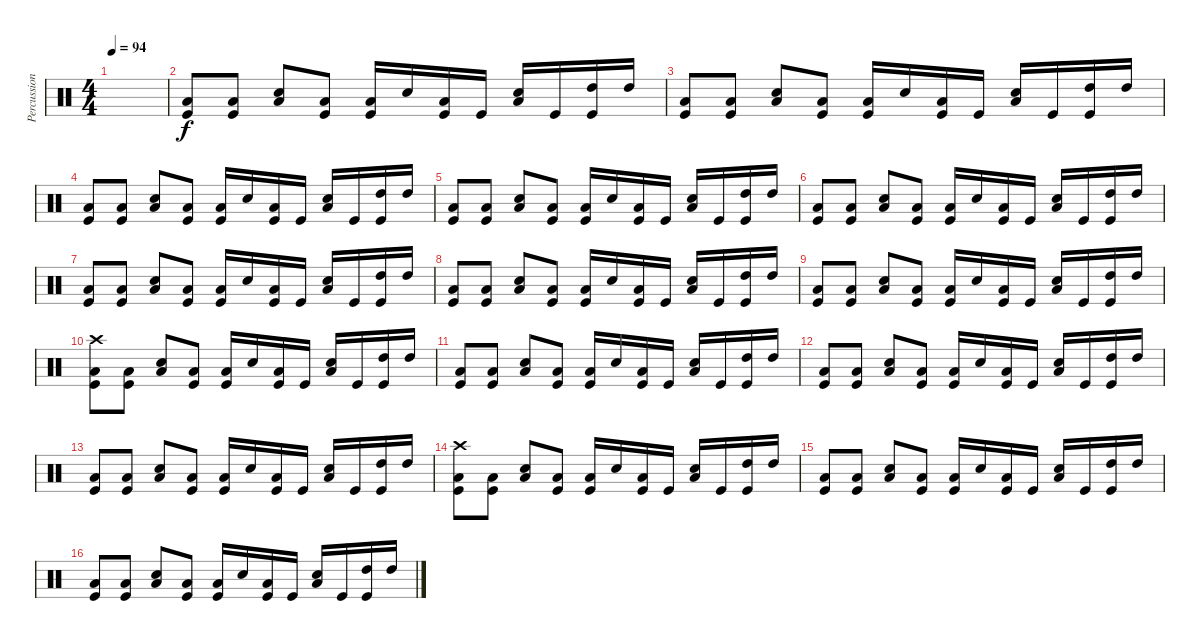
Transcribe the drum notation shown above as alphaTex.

\track ("Percussions" "Percussion") {instrument percussion}
\staff {score}
\articulation defaults
\ts (4 4)
\tempo 94
\clef neutral
\ks c
|
("Kick (hit)" "Low Floor Tom (hit)").8 ("Kick (hit)" "Low Floor Tom (hit)").8 ("Electric Snare (hit)" "Low Floor Tom (hit)").8 ("Kick (hit)" "Low Floor Tom (hit)").8 ("Kick (hit)" "Low Floor Tom (hit)").16 "Electric Snare (hit)".16 ("Kick (hit)" "Low Floor Tom (hit)").16 "Kick (hit)".16 ("Electric Snare (hit)" "Low Floor Tom (hit)").16 "Kick (hit)".16 ("High Tom (hit)" "Kick (hit)").16 "High Tom (hit)".16 |
("Kick (hit)" "Low Floor Tom (hit)").8 ("Kick (hit)" "Low Floor Tom (hit)").8 ("Electric Snare (hit)" "Low Floor Tom (hit)").8 ("Kick (hit)" "Low Floor Tom (hit)").8 ("Kick (hit)" "Low Floor Tom (hit)").16 "Electric Snare (hit)".16 ("Kick (hit)" "Low Floor Tom (hit)").16 "Kick (hit)".16 ("Electric Snare (hit)" "Low Floor Tom (hit)").16 "Kick (hit)".16 ("High Tom (hit)" "Kick (hit)").16 "High Tom (hit)".16 |
("Kick (hit)" "Low Floor Tom (hit)").8 ("Kick (hit)" "Low Floor Tom (hit)").8 ("Electric Snare (hit)" "Low Floor Tom (hit)").8 ("Kick (hit)" "Low Floor Tom (hit)").8 ("Kick (hit)" "Low Floor Tom (hit)").16 "Electric Snare (hit)".16 ("Kick (hit)" "Low Floor Tom (hit)").16 "Kick (hit)".16 ("Electric Snare (hit)" "Low Floor Tom (hit)").16 "Kick (hit)".16 ("High Tom (hit)" "Kick (hit)").16 "High Tom (hit)".16 |
("Kick (hit)" "Low Floor Tom (hit)").8 ("Kick (hit)" "Low Floor Tom (hit)").8 ("Electric Snare (hit)" "Low Floor Tom (hit)").8 ("Kick (hit)" "Low Floor Tom (hit)").8 ("Kick (hit)" "Low Floor Tom (hit)").16 "Electric Snare (hit)".16 ("Kick (hit)" "Low Floor Tom (hit)").16 "Kick (hit)".16 ("Electric Snare (hit)" "Low Floor Tom (hit)").16 "Kick (hit)".16 ("High Tom (hit)" "Kick (hit)").16 "High Tom (hit)".16 |
("Kick (hit)" "Low Floor Tom (hit)").8 ("Kick (hit)" "Low Floor Tom (hit)").8 ("Electric Snare (hit)" "Low Floor Tom (hit)").8 ("Kick (hit)" "Low Floor Tom (hit)").8 ("Kick (hit)" "Low Floor Tom (hit)").16 "Electric Snare (hit)".16 ("Kick (hit)" "Low Floor Tom (hit)").16 "Kick (hit)".16 ("Electric Snare (hit)" "Low Floor Tom (hit)").16 "Kick (hit)".16 ("High Tom (hit)" "Kick (hit)").16 "High Tom (hit)".16 |
("Kick (hit)" "Low Floor Tom (hit)").8 ("Kick (hit)" "Low Floor Tom (hit)").8 ("Electric Snare (hit)" "Low Floor Tom (hit)").8 ("Kick (hit)" "Low Floor Tom (hit)").8 ("Kick (hit)" "Low Floor Tom (hit)").16 "Electric Snare (hit)".16 ("Kick (hit)" "Low Floor Tom (hit)").16 "Kick (hit)".16 ("Electric Snare (hit)" "Low Floor Tom (hit)").16 "Kick (hit)".16 ("High Tom (hit)" "Kick (hit)").16 "High Tom (hit)".16 |
("Kick (hit)" "Low Floor Tom (hit)").8 ("Kick (hit)" "Low Floor Tom (hit)").8 ("Electric Snare (hit)" "Low Floor Tom (hit)").8 ("Kick (hit)" "Low Floor Tom (hit)").8 ("Kick (hit)" "Low Floor Tom (hit)").16 "Electric Snare (hit)".16 ("Kick (hit)" "Low Floor Tom (hit)").16 "Kick (hit)".16 ("Electric Snare (hit)" "Low Floor Tom (hit)").16 "Kick (hit)".16 ("High Tom (hit)" "Kick (hit)").16 "High Tom (hit)".16 |
("Kick (hit)" "Low Floor Tom (hit)").8 ("Kick (hit)" "Low Floor Tom (hit)").8 ("Electric Snare (hit)" "Low Floor Tom (hit)").8 ("Kick (hit)" "Low Floor Tom (hit)").8 ("Kick (hit)" "Low Floor Tom (hit)").16 "Electric Snare (hit)".16 ("Kick (hit)" "Low Floor Tom (hit)").16 "Kick (hit)".16 ("Electric Snare (hit)" "Low Floor Tom (hit)").16 "Kick (hit)".16 ("High Tom (hit)" "Kick (hit)").16 "High Tom (hit)".16 |
("Crash high (hit)" "Kick (hit)" "Low Floor Tom (hit)").8 ("Kick (hit)" "Low Floor Tom (hit)").8 ("Electric Snare (hit)" "Low Floor Tom (hit)").8 ("Kick (hit)" "Low Floor Tom (hit)").8 ("Kick (hit)" "Low Floor Tom (hit)").16 "Electric Snare (hit)".16 ("Kick (hit)" "Low Floor Tom (hit)").16 "Kick (hit)".16 ("Electric Snare (hit)" "Low Floor Tom (hit)").16 "Kick (hit)".16 ("High Tom (hit)" "Kick (hit)").16 "High Tom (hit)".16 |
("Kick (hit)" "Low Floor Tom (hit)").8 ("Kick (hit)" "Low Floor Tom (hit)").8 ("Electric Snare (hit)" "Low Floor Tom (hit)").8 ("Kick (hit)" "Low Floor Tom (hit)").8 ("Kick (hit)" "Low Floor Tom (hit)").16 "Electric Snare (hit)".16 ("Kick (hit)" "Low Floor Tom (hit)").16 "Kick (hit)".16 ("Electric Snare (hit)" "Low Floor Tom (hit)").16 "Kick (hit)".16 ("High Tom (hit)" "Kick (hit)").16 "High Tom (hit)".16 |
("Kick (hit)" "Low Floor Tom (hit)").8 ("Kick (hit)" "Low Floor Tom (hit)").8 ("Electric Snare (hit)" "Low Floor Tom (hit)").8 ("Kick (hit)" "Low Floor Tom (hit)").8 ("Kick (hit)" "Low Floor Tom (hit)").16 "Electric Snare (hit)".16 ("Kick (hit)" "Low Floor Tom (hit)").16 "Kick (hit)".16 ("Electric Snare (hit)" "Low Floor Tom (hit)").16 "Kick (hit)".16 ("High Tom (hit)" "Kick (hit)").16 "High Tom (hit)".16 |
("Kick (hit)" "Low Floor Tom (hit)").8 ("Kick (hit)" "Low Floor Tom (hit)").8 ("Electric Snare (hit)" "Low Floor Tom (hit)").8 ("Kick (hit)" "Low Floor Tom (hit)").8 ("Kick (hit)" "Low Floor Tom (hit)").16 "Electric Snare (hit)".16 ("Kick (hit)" "Low Floor Tom (hit)").16 "Kick (hit)".16 ("Electric Snare (hit)" "Low Floor Tom (hit)").16 "Kick (hit)".16 ("High Tom (hit)" "Kick (hit)").16 "High Tom (hit)".16 |
("Crash high (hit)" "Kick (hit)" "Low Floor Tom (hit)").8 ("Kick (hit)" "Low Floor Tom (hit)").8 ("Electric Snare (hit)" "Low Floor Tom (hit)").8 ("Kick (hit)" "Low Floor Tom (hit)").8 ("Kick (hit)" "Low Floor Tom (hit)").16 "Electric Snare (hit)".16 ("Kick (hit)" "Low Floor Tom (hit)").16 "Kick (hit)".16 ("Electric Snare (hit)" "Low Floor Tom (hit)").16 "Kick (hit)".16 ("High Tom (hit)" "Kick (hit)").16 "High Tom (hit)".16 |
("Kick (hit)" "Low Floor Tom (hit)").8 ("Kick (hit)" "Low Floor Tom (hit)").8 ("Electric Snare (hit)" "Low Floor Tom (hit)").8 ("Kick (hit)" "Low Floor Tom (hit)").8 ("Kick (hit)" "Low Floor Tom (hit)").16 "Electric Snare (hit)".16 ("Kick (hit)" "Low Floor Tom (hit)").16 "Kick (hit)".16 ("Electric Snare (hit)" "Low Floor Tom (hit)").16 "Kick (hit)".16 ("High Tom (hit)" "Kick (hit)").16 "High Tom (hit)".16 |
("Kick (hit)" "Low Floor Tom (hit)").8 ("Kick (hit)" "Low Floor Tom (hit)").8 ("Electric Snare (hit)" "Low Floor Tom (hit)").8 ("Kick (hit)" "Low Floor Tom (hit)").8 ("Kick (hit)" "Low Floor Tom (hit)").16 "Electric Snare (hit)".16 ("Kick (hit)" "Low Floor Tom (hit)").16 "Kick (hit)".16 ("Electric Snare (hit)" "Low Floor Tom (hit)").16 "Kick (hit)".16 ("High Tom (hit)" "Kick (hit)").16 "High Tom (hit)".16
